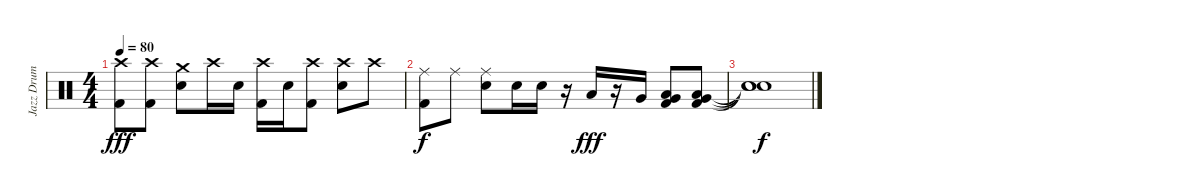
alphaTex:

\track ("Jazz Drum" "Jazz Drum") {instrument percussion}
\staff {score}
\articulation defaults
\ts (4 4)
\tempo 80
\clef neutral
\ks c
("Crash high (hit)" "Kick (hit) 2").8{dy fff} ("Crash high (hit)" "Kick (hit) 2").8 ("Crash medium (hit)" "Electric Snare (hit)").8 "Crash high (hit)".16 "Electric Snare (hit)".16 ("Crash high (hit)" "Kick (hit) 2").16 "Electric Snare (hit)".16 ("Crash high (hit)" "Kick (hit) 2").8 ("Crash high (hit)" "Electric Snare (hit)").8 "Crash high (hit)".8 |
("Ride (middle)" "Kick (hit) 2").8{dy f} "Ride (middle)".8 ("Ride (middle)" "Electric Snare (hit)").8 "Electric Snare (hit)".16 "Electric Snare (hit)".16 r.16 "Low Tom (hit)".16{dy fff} r.16 "Very Low Tom (hit)".16 ("Low Floor Tom (hit)" "Very Low Tom (hit)" "Kick (hit) 2").8 ("Low Floor Tom (hit)" "Very Low Tom (hit)" "Kick (hit) 2").8 |
("Snare (hit)"{t} "Snare (hit)"{t} "Snare (hit)"{t}).1{dy f}
